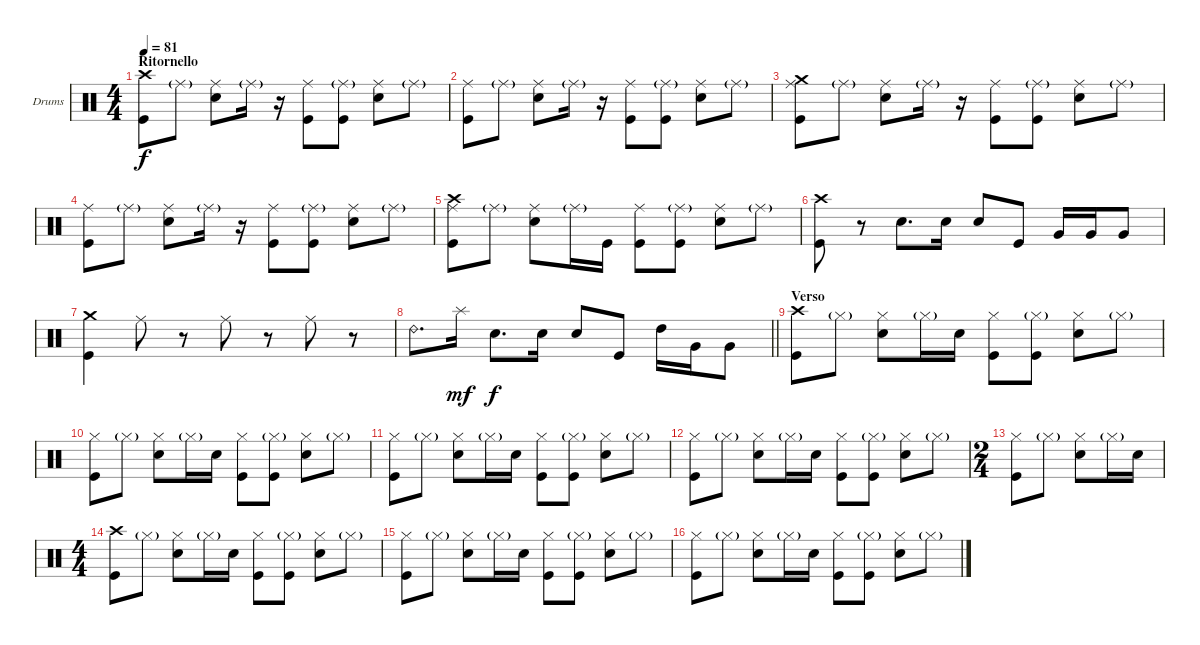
\bracketExtendMode groupsimilarinstruments
\firstSystemTrackNameOrientation horizontal
\otherSystemsTrackNameOrientation horizontal
\track ("Batteria" "Drums") {instrument percussion}
\staff {score}
\articulation defaults
\ts (4 4)
\section ("" "Ritornello")
\tempo 81
\clef neutral
\ks c
("Kick (hit)" "Crash high (hit)").8{dy f} "Ride (middle)"{g}.8 ("Snare (hit) 2" "Ride (middle)").8 "Ride (middle)"{g}.16 r.16 ("Ride (middle)" "Kick (hit)").8 ("Ride (middle)"{g} "Kick (hit)").8 ("Ride (middle)" "Snare (hit) 2").8 "Ride (middle)"{g}.8 |
("Kick (hit)" "Ride (middle)").8 "Ride (middle)"{g}.8 ("Snare (hit) 2" "Ride (middle)").8 "Ride (middle)"{g}.16 r.16 ("Ride (middle)" "Kick (hit)").8 ("Ride (middle)"{g} "Kick (hit)").8 ("Ride (middle)" "Snare (hit) 2").8 "Ride (middle)"{g}.8 |
("Kick (hit)" "Ride (middle)" "Crash medium (hit)").8 "Ride (middle)"{g}.8 ("Snare (hit) 2" "Ride (middle)").8 "Ride (middle)"{g}.16 r.16 ("Ride (middle)" "Kick (hit)").8 ("Ride (middle)"{g} "Kick (hit)").8 ("Ride (middle)" "Snare (hit) 2").8 "Ride (middle)"{g}.8 |
("Kick (hit)" "Ride (middle)").8 "Ride (middle)"{g}.8 ("Snare (hit) 2" "Ride (middle)").8 "Ride (middle)"{g}.16 r.16 ("Ride (middle)" "Kick (hit)").8 ("Ride (middle)"{g} "Kick (hit)").8 ("Ride (middle)" "Snare (hit) 2").8 "Ride (middle)"{g}.8 |
\scale
0.283747 ("Kick (hit)" "Ride (middle)" "Crash high (hit)").8 "Ride (middle)"{g}.8 ("Snare (hit) 2" "Ride (middle)").8 "Ride (middle)"{g}.16 "Kick (hit)".16 ("Ride (middle)" "Kick (hit)").8 ("Ride (middle)"{g} "Kick (hit)").8 ("Ride (middle)" "Snare (hit) 2").8 "Ride (middle)"{g}.8 |
\scale
0.254821 ("Kick (hit)" "Crash high (hit)").8 r.8 "Snare (hit) 2".8{d} "Snare (hit) 2".16 "Snare (hit) 2".8 "Kick (hit)".8 "Very Low Tom (hit)".16 "Very Low Tom (hit)".16 "Very Low Tom (hit)".8 |
\scale
0.206612 ("Crash medium (hit)" "Kick (hit)").4 "Ride (middle)".8 r.8 "Ride (middle)".8 r.8 "Ride (middle)".8 r.8 |
\scale
0.254821
\barLineRight lightlight "Ride (bell) 2".8{d} "Splash (hit)".16{dy mf} "Snare (hit) 2".8{d dy f} "Snare (hit) 2".16 "Snare (hit) 2".8 "Kick (hit)".8 "High Tom (hit)".16 "Very Low Tom (hit)".16 "Very Low Tom (hit)".8
|
\section ("" "Verso")
("Kick (hit)" "Crash high (hit)").8 "Hi-Hat (closed)"{g}.8 ("Snare (hit) 2" "Hi-Hat (closed)").8 "Hi-Hat (closed)"{g}.16 "Snare (hit) 2".16 ("Kick (hit)" "Hi-Hat (closed)").8 ("Kick (hit)" "Hi-Hat (closed)"{g}).8 ("Snare (hit) 2" "Hi-Hat (closed)").8 "Hi-Hat (closed)"{g}.8 |
("Kick (hit)" "Hi-Hat (closed)").8 "Hi-Hat (closed)"{g}.8 ("Snare (hit) 2" "Hi-Hat (closed)").8 "Hi-Hat (closed)"{g}.16 "Snare (hit) 2".16 ("Kick (hit)" "Hi-Hat (closed)").8 ("Kick (hit)" "Hi-Hat (closed)"{g}).8 ("Snare (hit) 2" "Hi-Hat (closed)").8 "Hi-Hat (closed)"{g}.8 |
("Kick (hit)" "Hi-Hat (closed)").8 "Hi-Hat (closed)"{g}.8 ("Snare (hit) 2" "Hi-Hat (closed)").8 "Hi-Hat (closed)"{g}.16 "Snare (hit) 2".16 ("Kick (hit)" "Hi-Hat (closed)").8 ("Kick (hit)" "Hi-Hat (closed)"{g}).8 ("Snare (hit) 2" "Hi-Hat (closed)").8 "Hi-Hat (closed)"{g}.8 |
("Kick (hit)" "Hi-Hat (closed)").8 "Hi-Hat (closed)"{g}.8 ("Snare (hit) 2" "Hi-Hat (closed)").8 "Hi-Hat (closed)"{g}.16 "Snare (hit) 2".16 ("Kick (hit)" "Hi-Hat (closed)").8 ("Kick (hit)" "Hi-Hat (closed)"{g}).8 ("Snare (hit) 2" "Hi-Hat (closed)").8 "Hi-Hat (closed)"{g}.8 |
\ts (2 4)
\beaming (8 2 2)
("Kick (hit)" "Hi-Hat (closed)").8 "Hi-Hat (closed)"{g}.8 ("Snare (hit) 2" "Hi-Hat (closed)").8 "Hi-Hat (closed)"{g}.16 "Snare (hit) 2".16 |
\ts (4 4)
\beaming (8 2 2 2 2)
("Kick (hit)" "Crash high (hit)").8 "Hi-Hat (closed)"{g}.8 ("Snare (hit) 2" "Hi-Hat (closed)").8 "Hi-Hat (closed)"{g}.16 "Snare (hit) 2".16 ("Kick (hit)" "Hi-Hat (closed)").8 ("Kick (hit)" "Hi-Hat (closed)"{g}).8 ("Snare (hit) 2" "Hi-Hat (closed)").8 "Hi-Hat (closed)"{g}.8 |
("Kick (hit)" "Hi-Hat (closed)").8 "Hi-Hat (closed)"{g}.8 ("Snare (hit) 2" "Hi-Hat (closed)").8 "Hi-Hat (closed)"{g}.16 "Snare (hit) 2".16 ("Kick (hit)" "Hi-Hat (closed)").8 ("Kick (hit)" "Hi-Hat (closed)"{g}).8 ("Snare (hit) 2" "Hi-Hat (closed)").8 "Hi-Hat (closed)"{g}.8 |
("Kick (hit)" "Hi-Hat (closed)").8 "Hi-Hat (closed)"{g}.8 ("Snare (hit) 2" "Hi-Hat (closed)").8 "Hi-Hat (closed)"{g}.16 "Snare (hit) 2".16 ("Kick (hit)" "Hi-Hat (closed)").8 ("Kick (hit)" "Hi-Hat (closed)"{g}).8 ("Snare (hit) 2" "Hi-Hat (closed)").8 "Hi-Hat (closed)"{g}.8
